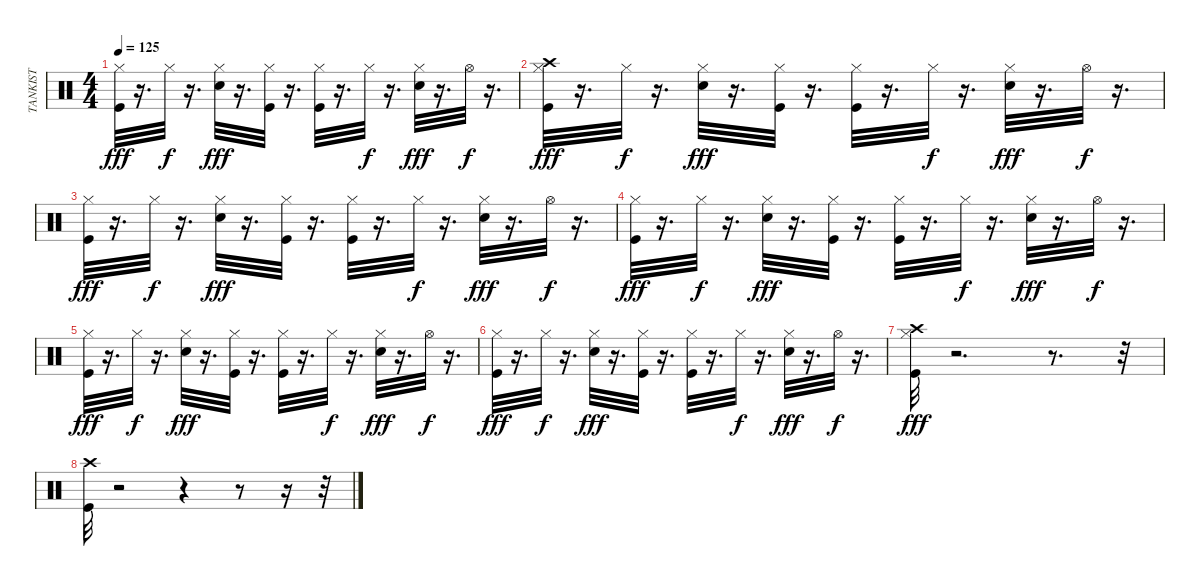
\track ("TANKIST" "TANKIST") {instrument percussion}
\staff {score}
\articulation defaults
\ts (4 4)
\tempo 125
\clef neutral
\ks c
("Kick (hit)" "Hi-Hat (closed)").32{dy fff} r.16{d} "Hi-Hat (closed)".32{dy f} r.16{d} ("Electric Snare (hit)" "Hi-Hat (closed)").32{dy fff} r.16{d} ("Kick (hit)" "Hi-Hat (closed)").32 r.16{d} ("Kick (hit)" "Hi-Hat (closed)").32 r.16{d} "Hi-Hat (closed)".32{dy f} r.16{d} ("Electric Snare (hit)" "Hi-Hat (closed)").32{dy fff} r.16{d} "Hi-Hat (open)".32{dy f} r.16{d} |
("Crash high (hit)" "Hi-Hat (closed)" "Kick (hit)").32{dy fff} r.16{d} "Hi-Hat (closed)".32{dy f} r.16{d} ("Hi-Hat (closed)" "Electric Snare (hit)").32{dy fff} r.16{d} ("Hi-Hat (closed)" "Kick (hit)").32 r.16{d} ("Hi-Hat (closed)" "Kick (hit)").32 r.16{d} "Hi-Hat (closed)".32{dy f} r.16{d} ("Hi-Hat (closed)" "Electric Snare (hit)").32{dy fff} r.16{d} "Hi-Hat (open)".32{dy f} r.16{d} |
("Kick (hit)" "Hi-Hat (closed)").32{dy fff} r.16{d} "Hi-Hat (closed)".32{dy f} r.16{d} ("Electric Snare (hit)" "Hi-Hat (closed)").32{dy fff} r.16{d} ("Kick (hit)" "Hi-Hat (closed)").32 r.16{d} ("Kick (hit)" "Hi-Hat (closed)").32 r.16{d} "Hi-Hat (closed)".32{dy f} r.16{d} ("Electric Snare (hit)" "Hi-Hat (closed)").32{dy fff} r.16{d} "Hi-Hat (open)".32{dy f} r.16{d} |
("Hi-Hat (closed)" "Kick (hit)").32{dy fff} r.16{d} "Hi-Hat (closed)".32{dy f} r.16{d} ("Hi-Hat (closed)" "Electric Snare (hit)").32{dy fff} r.16{d} ("Hi-Hat (closed)" "Kick (hit)").32 r.16{d} ("Hi-Hat (closed)" "Kick (hit)").32 r.16{d} "Hi-Hat (closed)".32{dy f} r.16{d} ("Hi-Hat (closed)" "Electric Snare (hit)").32{dy fff} r.16{d} "Hi-Hat (open)".32{dy f} r.16{d} |
("Kick (hit)" "Hi-Hat (closed)").32{dy fff} r.16{d} "Hi-Hat (closed)".32{dy f} r.16{d} ("Electric Snare (hit)" "Hi-Hat (closed)").32{dy fff} r.16{d} ("Kick (hit)" "Hi-Hat (closed)").32 r.16{d} ("Kick (hit)" "Hi-Hat (closed)").32 r.16{d} "Hi-Hat (closed)".32{dy f} r.16{d} ("Electric Snare (hit)" "Hi-Hat (closed)").32{dy fff} r.16{d} "Hi-Hat (open)".32{dy f} r.16{d} |
("Hi-Hat (closed)" "Kick (hit)").32{dy fff} r.16{d} "Hi-Hat (closed)".32{dy f} r.16{d} ("Hi-Hat (closed)" "Electric Snare (hit)").32{dy fff} r.16{d} ("Hi-Hat (closed)" "Kick (hit)").32 r.16{d} ("Hi-Hat (closed)" "Kick (hit)").32 r.16{d} "Hi-Hat (closed)".32{dy f} r.16{d} ("Hi-Hat (closed)" "Electric Snare (hit)").32{dy fff} r.16{d} "Hi-Hat (open)".32{dy f} r.16{d} |
("Crash high (hit)" "Kick (hit)" "Hi-Hat (closed)").32{dy fff} r.2{d} r.8{d} r.32 |
("Crash high (hit)" "Kick (hit)").32 r.2 r.4 r.8 r.16 r.32
